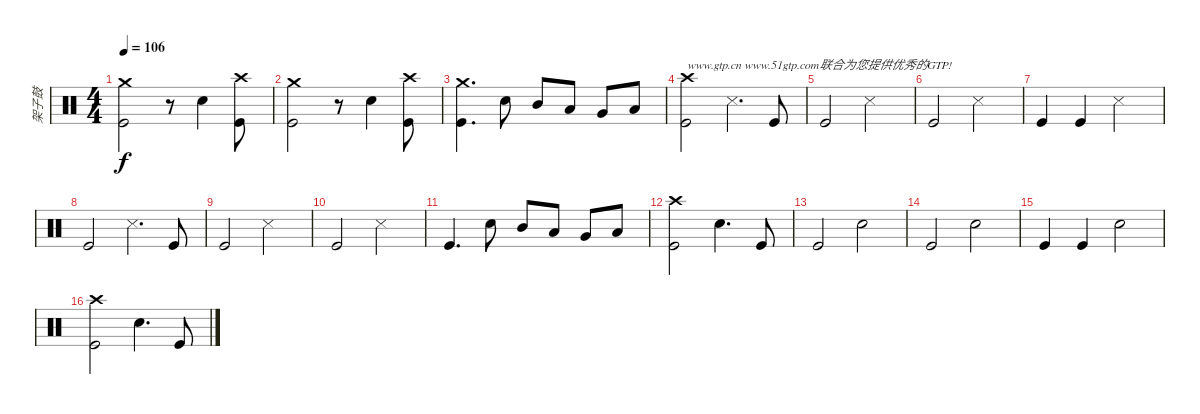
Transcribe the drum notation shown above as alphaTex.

\track ("架子鼓" "架子鼓") {instrument percussion}
\staff {score}
\articulation defaults
\ts (4 4)
\tempo 106
\clef neutral
\ks c
("Crash medium (hit)" "Kick (hit)").2{dy f} r.8 "Electric Snare (hit)".4 ("Crash high (hit)" "Kick (hit)").8 |
("Crash medium (hit)" "Kick (hit)").2 r.8 "Electric Snare (hit)".4 ("Crash high (hit)" "Kick (hit)").8 |
("Crash medium (hit)" "Kick (hit)").4{d} "Electric Snare (hit)".8 "Mid Tom (hit)".8 "Low Tom (hit)".8 "Very Low Tom (hit)".8 "Low Floor Tom (hit)".8 |
("Crash high (hit)" "Kick (hit)").2{txt "www.gtp.cn www.51gtp.com联合为您提供优秀的GTP!"} "Snare (side stick) 3".4{d} "Kick (hit)".8 |
"Kick (hit)".2 "Snare (side stick) 3".2 |
"Kick (hit)".2 "Snare (side stick) 3".2 |
"Kick (hit)".4 "Kick (hit)".4 "Snare (side stick) 3".2 |
"Kick (hit)".2 "Snare (side stick) 3".4{d} "Kick (hit)".8 |
"Kick (hit)".2 "Snare (side stick) 3".2 |
"Kick (hit)".2 "Snare (side stick) 3".2 |
"Kick (hit)".4{d} "Electric Snare (hit)".8 "Mid Tom (hit)".8 "Low Tom (hit)".8 "Very Low Tom (hit)".8 "Low Floor Tom (hit)".8 |
("Crash high (hit)" "Kick (hit)").2 "Electric Snare (hit)".4{d} "Kick (hit)".8 |
"Kick (hit)".2 "Electric Snare (hit)".2 |
"Kick (hit)".2 "Electric Snare (hit)".2 |
"Kick (hit)".4 "Kick (hit)".4 "Electric Snare (hit)".2 |
("Crash high (hit)" "Kick (hit)").2 "Electric Snare (hit)".4{d} "Kick (hit)".8
